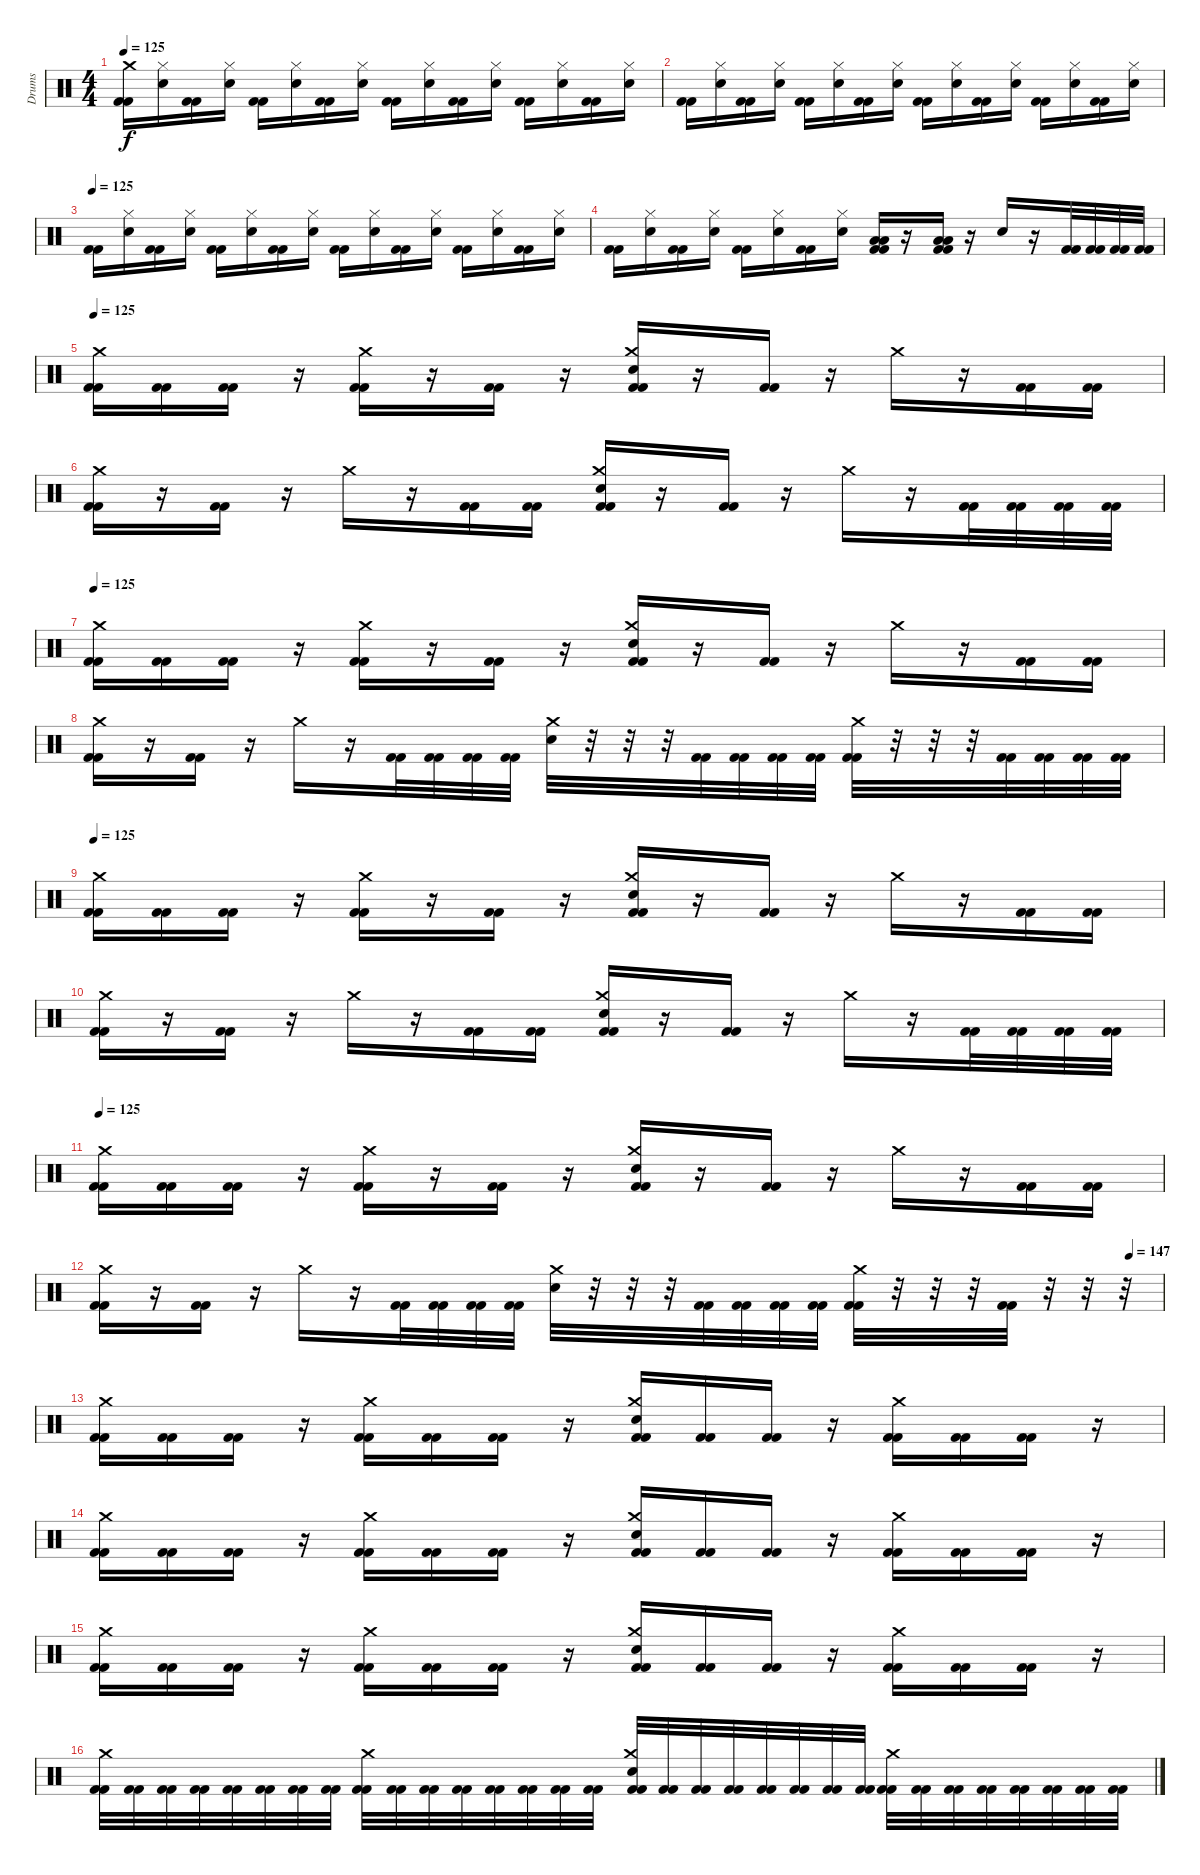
\track ("Drums" "Drums") {instrument percussion}
\staff {score}
\articulation defaults
\ts (4 4)
\tempo 125
\clef neutral
\ks c
("Kick (hit) 2" "Crash medium (hit)" "Kick (hit) 2").16{dy f} ("Hi-Hat (closed)" "Snare (hit) 2").16 ("Kick (hit) 2" "Kick (hit) 2").16 ("Hi-Hat (closed)" "Snare (hit) 2").16 ("Kick (hit) 2" "Kick (hit) 2").16 ("Hi-Hat (closed)" "Snare (hit) 2").16 ("Kick (hit) 2" "Kick (hit) 2").16 ("Hi-Hat (closed)" "Snare (hit) 2").16 ("Kick (hit) 2" "Kick (hit) 2").16 ("Hi-Hat (closed)" "Snare (hit) 2").16 ("Kick (hit) 2" "Kick (hit) 2").16 ("Hi-Hat (closed)" "Snare (hit) 2").16 ("Kick (hit) 2" "Kick (hit) 2").16 ("Hi-Hat (closed)" "Snare (hit) 2").16 ("Kick (hit) 2" "Kick (hit) 2").16 ("Hi-Hat (closed)" "Snare (hit) 2").16 |
("Kick (hit) 2" "Kick (hit) 2").16 ("Hi-Hat (closed)" "Snare (hit) 2").16 ("Kick (hit) 2" "Kick (hit) 2").16 ("Hi-Hat (closed)" "Snare (hit) 2").16 ("Kick (hit) 2" "Kick (hit) 2").16 ("Hi-Hat (closed)" "Snare (hit) 2").16 ("Kick (hit) 2" "Kick (hit) 2").16 ("Hi-Hat (closed)" "Snare (hit) 2").16 ("Kick (hit) 2" "Kick (hit) 2").16 ("Hi-Hat (closed)" "Snare (hit) 2").16 ("Kick (hit) 2" "Kick (hit) 2").16 ("Hi-Hat (closed)" "Snare (hit) 2").16 ("Kick (hit) 2" "Kick (hit) 2").16 ("Hi-Hat (closed)" "Snare (hit) 2").16 ("Kick (hit) 2" "Kick (hit) 2").16 ("Hi-Hat (closed)" "Snare (hit) 2").16 |
\tempo 125
("Kick (hit) 2" "Kick (hit) 2").16 ("Hi-Hat (closed)" "Snare (hit) 2").16 ("Kick (hit) 2" "Kick (hit) 2").16 ("Hi-Hat (closed)" "Snare (hit) 2").16 ("Kick (hit) 2" "Kick (hit) 2").16 ("Hi-Hat (closed)" "Snare (hit) 2").16 ("Kick (hit) 2" "Kick (hit) 2").16 ("Hi-Hat (closed)" "Snare (hit) 2").16 ("Kick (hit) 2" "Kick (hit) 2").16 ("Hi-Hat (closed)" "Snare (hit) 2").16 ("Kick (hit) 2" "Kick (hit) 2").16 ("Hi-Hat (closed)" "Snare (hit) 2").16 ("Kick (hit) 2" "Kick (hit) 2").16 ("Hi-Hat (closed)" "Snare (hit) 2").16 ("Kick (hit) 2" "Kick (hit) 2").16 ("Hi-Hat (closed)" "Snare (hit) 2").16 |
("Kick (hit) 2" "Kick (hit) 2").16 ("Hi-Hat (closed)" "Snare (hit) 2").16 ("Kick (hit) 2" "Kick (hit) 2").16 ("Hi-Hat (closed)" "Snare (hit) 2").16 ("Kick (hit) 2" "Kick (hit) 2").16 ("Hi-Hat (closed)" "Snare (hit) 2").16 ("Kick (hit) 2" "Kick (hit) 2").16 ("Hi-Hat (closed)" "Snare (hit) 2").16 ("Kick (hit) 2" "Low Floor Tom (hit)" "Low Floor Tom (hit)" "Kick (hit) 2").16 r.16 ("Kick (hit) 2" "Low Floor Tom (hit)" "Low Floor Tom (hit)" "Kick (hit) 2").16 r.16 "Snare (hit) 2".16 r.16 ("Kick (hit) 2" "Kick (hit) 2").32 ("Kick (hit) 2" "Kick (hit) 2").32 ("Kick (hit) 2" "Kick (hit) 2").32 ("Kick (hit) 2" "Kick (hit) 2").32 |
\tempo 125
("Kick (hit) 2" "Crash medium (hit)" "Kick (hit) 2").16 ("Kick (hit) 2" "Kick (hit) 2").16 ("Kick (hit) 2" "Kick (hit) 2").16 r.16 ("Kick (hit) 2" "Crash medium (hit)" "Kick (hit) 2").16 r.16 ("Kick (hit) 2" "Kick (hit) 2").16 r.16 ("Kick (hit) 2" "Crash medium (hit)" "Snare (hit) 2" "Kick (hit) 2").16 r.16 ("Kick (hit) 2" "Kick (hit) 2").16 r.16 "Crash medium (hit)".16 r.16 ("Kick (hit) 2" "Kick (hit) 2").16 ("Kick (hit) 2" "Kick (hit) 2").16 |
("Kick (hit) 2" "Crash medium (hit)" "Kick (hit) 2").16 r.16 ("Kick (hit) 2" "Kick (hit) 2").16 r.16 "Crash medium (hit)".16 r.16 ("Kick (hit) 2" "Kick (hit) 2").16 ("Kick (hit) 2" "Kick (hit) 2").16 ("Kick (hit) 2" "Crash medium (hit)" "Snare (hit) 2" "Kick (hit) 2").16 r.16 ("Kick (hit) 2" "Kick (hit) 2").16 r.16 "Crash medium (hit)".16 r.16 ("Kick (hit) 2" "Kick (hit) 2").32 ("Kick (hit) 2" "Kick (hit) 2").32 ("Kick (hit) 2" "Kick (hit) 2").32 ("Kick (hit) 2" "Kick (hit) 2").32 |
\tempo 125
("Kick (hit) 2" "Crash medium (hit)" "Kick (hit) 2").16 ("Kick (hit) 2" "Kick (hit) 2").16 ("Kick (hit) 2" "Kick (hit) 2").16 r.16 ("Kick (hit) 2" "Crash medium (hit)" "Kick (hit) 2").16 r.16 ("Kick (hit) 2" "Kick (hit) 2").16 r.16 ("Kick (hit) 2" "Crash medium (hit)" "Snare (hit) 2" "Kick (hit) 2").16 r.16 ("Kick (hit) 2" "Kick (hit) 2").16 r.16 "Crash medium (hit)".16 r.16 ("Kick (hit) 2" "Kick (hit) 2").16 ("Kick (hit) 2" "Kick (hit) 2").16 |
("Kick (hit) 2" "Crash medium (hit)" "Kick (hit) 2").16 r.16 ("Kick (hit) 2" "Kick (hit) 2").16 r.16 "Crash medium (hit)".16 r.16 ("Kick (hit) 2" "Kick (hit) 2").32 ("Kick (hit) 2" "Kick (hit) 2").32 ("Kick (hit) 2" "Kick (hit) 2").32 ("Kick (hit) 2" "Kick (hit) 2").32 ("Crash medium (hit)" "Snare (hit) 2").32 r.32 r.32 r.32 ("Kick (hit) 2" "Kick (hit) 2").32 ("Kick (hit) 2" "Kick (hit) 2").32 ("Kick (hit) 2" "Kick (hit) 2").32 ("Kick (hit) 2" "Kick (hit) 2").32 ("Kick (hit) 2" "Crash medium (hit)" "Kick (hit) 2").32 r.32 r.32 r.32 ("Kick (hit) 2" "Kick (hit) 2").32 ("Kick (hit) 2" "Kick (hit) 2").32 ("Kick (hit) 2" "Kick (hit) 2").32 ("Kick (hit) 2" "Kick (hit) 2").32 |
\tempo 125
("Kick (hit) 2" "Crash medium (hit)" "Kick (hit) 2").16 ("Kick (hit) 2" "Kick (hit) 2").16 ("Kick (hit) 2" "Kick (hit) 2").16 r.16 ("Kick (hit) 2" "Crash medium (hit)" "Kick (hit) 2").16 r.16 ("Kick (hit) 2" "Kick (hit) 2").16 r.16 ("Kick (hit) 2" "Crash medium (hit)" "Snare (hit) 2" "Kick (hit) 2").16 r.16 ("Kick (hit) 2" "Kick (hit) 2").16 r.16 "Crash medium (hit)".16 r.16 ("Kick (hit) 2" "Kick (hit) 2").16 ("Kick (hit) 2" "Kick (hit) 2").16 |
("Kick (hit) 2" "Crash medium (hit)" "Kick (hit) 2").16 r.16 ("Kick (hit) 2" "Kick (hit) 2").16 r.16 "Crash medium (hit)".16 r.16 ("Kick (hit) 2" "Kick (hit) 2").16 ("Kick (hit) 2" "Kick (hit) 2").16 ("Kick (hit) 2" "Crash medium (hit)" "Snare (hit) 2" "Kick (hit) 2").16 r.16 ("Kick (hit) 2" "Kick (hit) 2").16 r.16 "Crash medium (hit)".16 r.16 ("Kick (hit) 2" "Kick (hit) 2").32 ("Kick (hit) 2" "Kick (hit) 2").32 ("Kick (hit) 2" "Kick (hit) 2").32 ("Kick (hit) 2" "Kick (hit) 2").32 |
\tempo 125
("Kick (hit) 2" "Crash medium (hit)" "Kick (hit) 2").16 ("Kick (hit) 2" "Kick (hit) 2").16 ("Kick (hit) 2" "Kick (hit) 2").16 r.16 ("Kick (hit) 2" "Crash medium (hit)" "Kick (hit) 2").16 r.16 ("Kick (hit) 2" "Kick (hit) 2").16 r.16 ("Kick (hit) 2" "Crash medium (hit)" "Snare (hit) 2" "Kick (hit) 2").16 r.16 ("Kick (hit) 2" "Kick (hit) 2").16 r.16 "Crash medium (hit)".16 r.16 ("Kick (hit) 2" "Kick (hit) 2").16 ("Kick (hit) 2" "Kick (hit) 2").16 |
\tempo (147 0.96875)
("Kick (hit) 2" "Crash medium (hit)" "Kick (hit) 2").16 r.16 ("Kick (hit) 2" "Kick (hit) 2").16 r.16 "Crash medium (hit)".16 r.16 ("Kick (hit) 2" "Kick (hit) 2").32 ("Kick (hit) 2" "Kick (hit) 2").32 ("Kick (hit) 2" "Kick (hit) 2").32 ("Kick (hit) 2" "Kick (hit) 2").32 ("Crash medium (hit)" "Snare (hit) 2").32 r.32 r.32 r.32 ("Kick (hit) 2" "Kick (hit) 2").32 ("Kick (hit) 2" "Kick (hit) 2").32 ("Kick (hit) 2" "Kick (hit) 2").32 ("Kick (hit) 2" "Kick (hit) 2").32 ("Kick (hit) 2" "Crash medium (hit)" "Kick (hit) 2").32 r.32 r.32 r.32 ("Kick (hit) 2" "Kick (hit) 2").32 r.32 r.32 r.32 |
("Kick (hit) 2" "Crash medium (hit)" "Kick (hit) 2").16 ("Kick (hit) 2" "Kick (hit) 2").16 ("Kick (hit) 2" "Kick (hit) 2").16 r.16 ("Kick (hit) 2" "Crash medium (hit)" "Kick (hit) 2").16 ("Kick (hit) 2" "Kick (hit) 2").16 ("Kick (hit) 2" "Kick (hit) 2").16 r.16 ("Kick (hit) 2" "Crash medium (hit)" "Snare (hit) 2" "Kick (hit) 2").16 ("Kick (hit) 2" "Kick (hit) 2").16 ("Kick (hit) 2" "Kick (hit) 2").16 r.16 ("Kick (hit) 2" "Crash medium (hit)" "Kick (hit) 2").16 ("Kick (hit) 2" "Kick (hit) 2").16 ("Kick (hit) 2" "Kick (hit) 2").16 r.16 |
("Kick (hit) 2" "Crash medium (hit)" "Kick (hit) 2").16 ("Kick (hit) 2" "Kick (hit) 2").16 ("Kick (hit) 2" "Kick (hit) 2").16 r.16 ("Kick (hit) 2" "Crash medium (hit)" "Kick (hit) 2").16 ("Kick (hit) 2" "Kick (hit) 2").16 ("Kick (hit) 2" "Kick (hit) 2").16 r.16 ("Kick (hit) 2" "Crash medium (hit)" "Snare (hit) 2" "Kick (hit) 2").16 ("Kick (hit) 2" "Kick (hit) 2").16 ("Kick (hit) 2" "Kick (hit) 2").16 r.16 ("Kick (hit) 2" "Crash medium (hit)" "Kick (hit) 2").16 ("Kick (hit) 2" "Kick (hit) 2").16 ("Kick (hit) 2" "Kick (hit) 2").16 r.16 |
("Kick (hit) 2" "Crash medium (hit)" "Kick (hit) 2").16 ("Kick (hit) 2" "Kick (hit) 2").16 ("Kick (hit) 2" "Kick (hit) 2").16 r.16 ("Kick (hit) 2" "Crash medium (hit)" "Kick (hit) 2").16 ("Kick (hit) 2" "Kick (hit) 2").16 ("Kick (hit) 2" "Kick (hit) 2").16 r.16 ("Kick (hit) 2" "Crash medium (hit)" "Snare (hit) 2" "Kick (hit) 2").16 ("Kick (hit) 2" "Kick (hit) 2").16 ("Kick (hit) 2" "Kick (hit) 2").16 r.16 ("Kick (hit) 2" "Crash medium (hit)" "Kick (hit) 2").16 ("Kick (hit) 2" "Kick (hit) 2").16 ("Kick (hit) 2" "Kick (hit) 2").16 r.16 |
("Kick (hit) 2" "Crash medium (hit)" "Kick (hit) 2").32 ("Kick (hit) 2" "Kick (hit) 2").32 ("Kick (hit) 2" "Kick (hit) 2").32 ("Kick (hit) 2" "Kick (hit) 2").32 ("Kick (hit) 2" "Kick (hit) 2").32 ("Kick (hit) 2" "Kick (hit) 2").32 ("Kick (hit) 2" "Kick (hit) 2").32 ("Kick (hit) 2" "Kick (hit) 2").32 ("Kick (hit) 2" "Crash medium (hit)" "Kick (hit) 2").32 ("Kick (hit) 2" "Kick (hit) 2").32 ("Kick (hit) 2" "Kick (hit) 2").32 ("Kick (hit) 2" "Kick (hit) 2").32 ("Kick (hit) 2" "Kick (hit) 2").32 ("Kick (hit) 2" "Kick (hit) 2").32 ("Kick (hit) 2" "Kick (hit) 2").32 ("Kick (hit) 2" "Kick (hit) 2").32 ("Kick (hit) 2" "Crash medium (hit)" "Snare (hit) 2" "Kick (hit) 2").32 ("Kick (hit) 2" "Kick (hit) 2").32 ("Kick (hit) 2" "Kick (hit) 2").32 ("Kick (hit) 2" "Kick (hit) 2").32 ("Kick (hit) 2" "Kick (hit) 2").32 ("Kick (hit) 2" "Kick (hit) 2").32 ("Kick (hit) 2" "Kick (hit) 2").32 ("Kick (hit) 2" "Kick (hit) 2").32 ("Kick (hit) 2" "Crash medium (hit)" "Kick (hit) 2").32 ("Kick (hit) 2" "Kick (hit) 2").32 ("Kick (hit) 2" "Kick (hit) 2").32 ("Kick (hit) 2" "Kick (hit) 2").32 ("Kick (hit) 2" "Kick (hit) 2").32 ("Kick (hit) 2" "Kick (hit) 2").32 ("Kick (hit) 2" "Kick (hit) 2").32 ("Kick (hit) 2" "Kick (hit) 2").32
